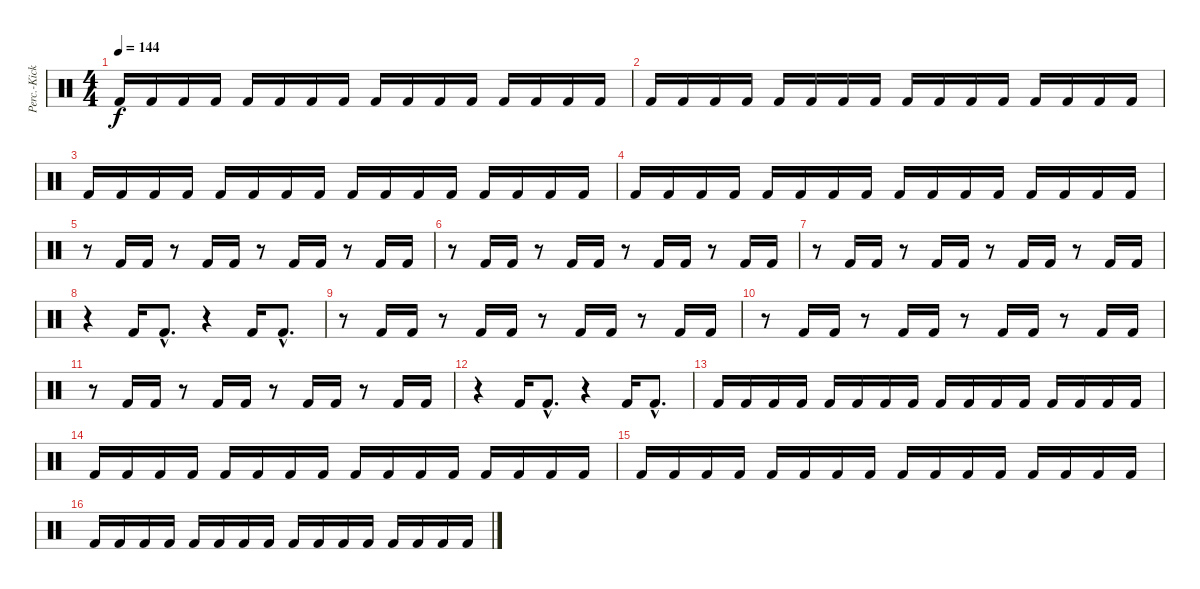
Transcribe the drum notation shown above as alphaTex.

\track ("Perc.-Kick" "Perc.-Kick") {instrument percussion}
\staff {score}
\articulation defaults
\ts (4 4)
\tempo 144
\clef neutral
\ks c "Kick (hit) 2".16{dy f} "Kick (hit) 2".16 "Kick (hit) 2".16 "Kick (hit) 2".16 "Kick (hit) 2".16 "Kick (hit) 2".16 "Kick (hit) 2".16 "Kick (hit) 2".16 "Kick (hit) 2".16 "Kick (hit) 2".16 "Kick (hit) 2".16 "Kick (hit) 2".16 "Kick (hit) 2".16 "Kick (hit) 2".16 "Kick (hit) 2".16 "Kick (hit) 2".16
|
"Kick (hit) 2".16 "Kick (hit) 2".16 "Kick (hit) 2".16 "Kick (hit) 2".16 "Kick (hit) 2".16 "Kick (hit) 2".16 "Kick (hit) 2".16 "Kick (hit) 2".16 "Kick (hit) 2".16 "Kick (hit) 2".16 "Kick (hit) 2".16 "Kick (hit) 2".16 "Kick (hit) 2".16 "Kick (hit) 2".16 "Kick (hit) 2".16 "Kick (hit) 2".16 |
"Kick (hit) 2".16 "Kick (hit) 2".16 "Kick (hit) 2".16 "Kick (hit) 2".16 "Kick (hit) 2".16 "Kick (hit) 2".16 "Kick (hit) 2".16 "Kick (hit) 2".16 "Kick (hit) 2".16 "Kick (hit) 2".16 "Kick (hit) 2".16 "Kick (hit) 2".16 "Kick (hit) 2".16 "Kick (hit) 2".16 "Kick (hit) 2".16 "Kick (hit) 2".16 |
"Kick (hit) 2".16 "Kick (hit) 2".16 "Kick (hit) 2".16 "Kick (hit) 2".16 "Kick (hit) 2".16 "Kick (hit) 2".16 "Kick (hit) 2".16 "Kick (hit) 2".16 "Kick (hit) 2".16 "Kick (hit) 2".16 "Kick (hit) 2".16 "Kick (hit) 2".16 "Kick (hit) 2".16 "Kick (hit) 2".16 "Kick (hit) 2".16 "Kick (hit) 2".16 |
r.8 "Kick (hit) 2".16 "Kick (hit) 2".16 r.8 "Kick (hit) 2".16 "Kick (hit) 2".16 r.8 "Kick (hit) 2".16 "Kick (hit) 2".16 r.8 "Kick (hit) 2".16 "Kick (hit) 2".16 |
r.8 "Kick (hit) 2".16 "Kick (hit) 2".16 r.8 "Kick (hit) 2".16 "Kick (hit) 2".16 r.8 "Kick (hit) 2".16 "Kick (hit) 2".16 r.8 "Kick (hit) 2".16 "Kick (hit) 2".16 |
r.8 "Kick (hit) 2".16 "Kick (hit) 2".16 r.8 "Kick (hit) 2".16 "Kick (hit) 2".16 r.8 "Kick (hit) 2".16 "Kick (hit) 2".16 r.8 "Kick (hit) 2".16 "Kick (hit) 2".16 |
r.4 "Kick (hit) 2".16 "Kick (hit) 2"{hac}.8{d} r.4 "Kick (hit) 2".16 "Kick (hit) 2"{hac}.8{d} |
r.8 "Kick (hit) 2".16 "Kick (hit) 2".16 r.8 "Kick (hit) 2".16 "Kick (hit) 2".16 r.8 "Kick (hit) 2".16 "Kick (hit) 2".16 r.8 "Kick (hit) 2".16 "Kick (hit) 2".16 |
r.8 "Kick (hit) 2".16 "Kick (hit) 2".16 r.8 "Kick (hit) 2".16 "Kick (hit) 2".16 r.8 "Kick (hit) 2".16 "Kick (hit) 2".16 r.8 "Kick (hit) 2".16 "Kick (hit) 2".16 |
r.8 "Kick (hit) 2".16 "Kick (hit) 2".16 r.8 "Kick (hit) 2".16 "Kick (hit) 2".16 r.8 "Kick (hit) 2".16 "Kick (hit) 2".16 r.8 "Kick (hit) 2".16 "Kick (hit) 2".16 |
r.4 "Kick (hit) 2".16 "Kick (hit) 2"{hac}.8{d} r.4 "Kick (hit) 2".16 "Kick (hit) 2"{hac}.8{d} |
"Kick (hit) 2".16 "Kick (hit) 2".16 "Kick (hit) 2".16 "Kick (hit) 2".16 "Kick (hit) 2".16 "Kick (hit) 2".16 "Kick (hit) 2".16 "Kick (hit) 2".16 "Kick (hit) 2".16 "Kick (hit) 2".16 "Kick (hit) 2".16 "Kick (hit) 2".16 "Kick (hit) 2".16 "Kick (hit) 2".16 "Kick (hit) 2".16 "Kick (hit) 2".16 |
"Kick (hit) 2".16 "Kick (hit) 2".16 "Kick (hit) 2".16 "Kick (hit) 2".16 "Kick (hit) 2".16 "Kick (hit) 2".16 "Kick (hit) 2".16 "Kick (hit) 2".16 "Kick (hit) 2".16 "Kick (hit) 2".16 "Kick (hit) 2".16 "Kick (hit) 2".16 "Kick (hit) 2".16 "Kick (hit) 2".16 "Kick (hit) 2".16 "Kick (hit) 2".16 |
"Kick (hit) 2".16 "Kick (hit) 2".16 "Kick (hit) 2".16 "Kick (hit) 2".16 "Kick (hit) 2".16 "Kick (hit) 2".16 "Kick (hit) 2".16 "Kick (hit) 2".16 "Kick (hit) 2".16 "Kick (hit) 2".16 "Kick (hit) 2".16 "Kick (hit) 2".16 "Kick (hit) 2".16 "Kick (hit) 2".16 "Kick (hit) 2".16 "Kick (hit) 2".16 |
"Kick (hit) 2".16 "Kick (hit) 2".16 "Kick (hit) 2".16 "Kick (hit) 2".16 "Kick (hit) 2".16 "Kick (hit) 2".16 "Kick (hit) 2".16 "Kick (hit) 2".16 "Kick (hit) 2".16 "Kick (hit) 2".16 "Kick (hit) 2".16 "Kick (hit) 2".16 "Kick (hit) 2".16 "Kick (hit) 2".16 "Kick (hit) 2".16 "Kick (hit) 2".16
